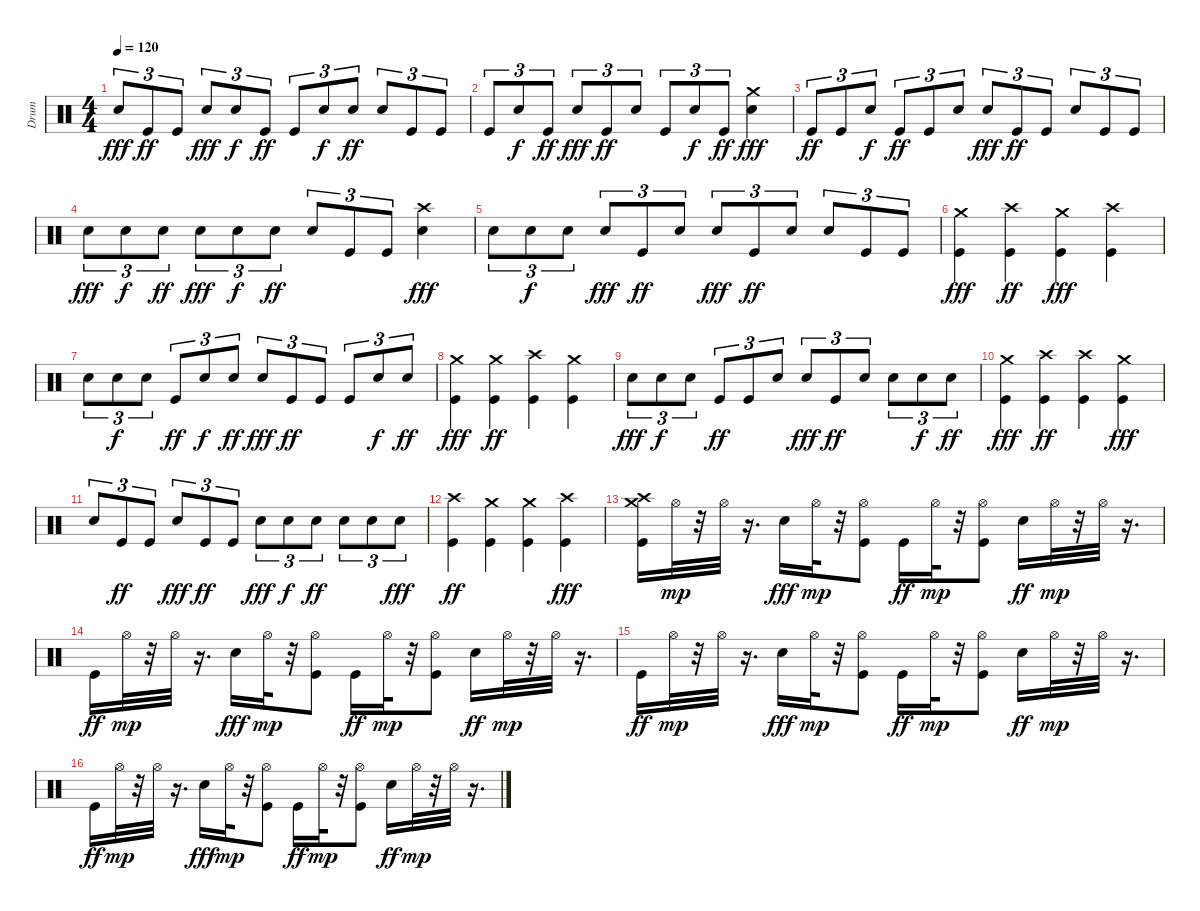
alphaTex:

\track ("Drum" "Drum") {instrument percussion}
\staff {score}
\articulation defaults
\ts (4 4)
\tempo 120
\clef neutral
\ks c "Snare (hit) 2".8{tu (3 2) dy fff} "Kick (hit)".8{tu (3 2) dy ff} "Kick (hit)".8{tu (3 2)} "Snare (hit) 2".8{tu (3 2) dy fff} "Snare (hit) 2".8{tu (3 2) dy f} "Kick (hit)".8{tu (3 2) dy ff} "Kick (hit)".8{tu (3 2)} "Snare (hit) 2".8{tu (3 2) dy f} "Snare (hit) 2".8{tu (3 2) dy ff} "Snare (hit) 2".8{tu (3 2)} "Kick (hit)".8{tu (3 2)} "Kick (hit)".8{tu (3 2)}
|
"Kick (hit)".8{tu (3 2)} "Snare (hit) 2".8{tu (3 2) dy f} "Kick (hit)".8{tu (3 2) dy ff} "Snare (hit) 2".8{tu (3 2) dy fff} "Kick (hit)".8{tu (3 2) dy ff} "Snare (hit) 2".8{tu (3 2)} "Kick (hit)".8{tu (3 2)} "Snare (hit) 2".8{tu (3 2) dy f} "Kick (hit)".8{tu (3 2) dy ff} ("Snare (hit) 2" "Crash medium (hit)").4{dy fff} |
"Kick (hit)".8{tu (3 2) dy ff} "Kick (hit)".8{tu (3 2)} "Snare (hit) 2".8{tu (3 2) dy f} "Kick (hit)".8{tu (3 2) dy ff} "Kick (hit)".8{tu (3 2)} "Snare (hit) 2".8{tu (3 2)} "Snare (hit) 2".8{tu (3 2) dy fff} "Kick (hit)".8{tu (3 2) dy ff} "Kick (hit)".8{tu (3 2)} "Snare (hit) 2".8{tu (3 2)} "Kick (hit)".8{tu (3 2)} "Kick (hit)".8{tu (3 2)} |
"Snare (hit) 2".8{tu (3 2) dy fff} "Snare (hit) 2".8{tu (3 2) dy f} "Snare (hit) 2".8{tu (3 2) dy ff} "Snare (hit) 2".8{tu (3 2) dy fff} "Snare (hit) 2".8{tu (3 2) dy f} "Snare (hit) 2".8{tu (3 2) dy ff} "Snare (hit) 2".8{tu (3 2)} "Kick (hit)".8{tu (3 2)} "Kick (hit)".8{tu (3 2)} ("Crash high (hit)" "Snare (hit) 2").4{dy fff} |
"Snare (hit) 2".8{tu (3 2)} "Snare (hit) 2".8{tu (3 2) dy f} "Snare (hit) 2".8{tu (3 2)} "Snare (hit) 2".8{tu (3 2) dy fff} "Kick (hit)".8{tu (3 2) dy ff} "Snare (hit) 2".8{tu (3 2)} "Snare (hit) 2".8{tu (3 2) dy fff} "Kick (hit)".8{tu (3 2) dy ff} "Snare (hit) 2".8{tu (3 2)} "Snare (hit) 2".8{tu (3 2)} "Kick (hit)".8{tu (3 2)} "Kick (hit)".8{tu (3 2)} |
("Kick (hit)" "Crash medium (hit)").4{dy fff} ("Crash high (hit)" "Kick (hit)").4{dy ff} ("Kick (hit)" "Crash medium (hit)").4{dy fff} ("Kick (hit)" "Crash high (hit)").4 |
"Snare (hit) 2".8{tu (3 2)} "Snare (hit) 2".8{tu (3 2) dy f} "Snare (hit) 2".8{tu (3 2)} "Kick (hit)".8{tu (3 2) dy ff} "Snare (hit) 2".8{tu (3 2) dy f} "Snare (hit) 2".8{tu (3 2) dy ff} "Snare (hit) 2".8{tu (3 2) dy fff} "Kick (hit)".8{tu (3 2) dy ff} "Kick (hit)".8{tu (3 2)} "Kick (hit)".8{tu (3 2)} "Snare (hit) 2".8{tu (3 2) dy f} "Snare (hit) 2".8{tu (3 2) dy ff} |
("Kick (hit)" "Crash medium (hit)").4{dy fff} ("Crash medium (hit)" "Kick (hit)").4{dy ff} ("Crash high (hit)" "Kick (hit)").4 ("Crash medium (hit)" "Kick (hit)").4 |
"Snare (hit) 2".8{tu (3 2) dy fff} "Snare (hit) 2".8{tu (3 2) dy f} "Snare (hit) 2".8{tu (3 2)} "Kick (hit)".8{tu (3 2) dy ff} "Kick (hit)".8{tu (3 2)} "Snare (hit) 2".8{tu (3 2)} "Snare (hit) 2".8{tu (3 2) dy fff} "Kick (hit)".8{tu (3 2) dy ff} "Snare (hit) 2".8{tu (3 2)} "Snare (hit) 2".8{tu (3 2)} "Snare (hit) 2".8{tu (3 2) dy f} "Snare (hit) 2".8{tu (3 2) dy ff} |
("Kick (hit)" "Crash medium (hit)").4{dy fff} ("Crash high (hit)" "Kick (hit)").4{dy ff} ("Crash high (hit)" "Kick (hit)").4 ("Kick (hit)" "Crash medium (hit)").4{dy fff} |
"Snare (hit) 2".8{tu (3 2)} "Kick (hit)".8{tu (3 2) dy ff} "Kick (hit)".8{tu (3 2)} "Snare (hit) 2".8{tu (3 2) dy fff} "Kick (hit)".8{tu (3 2) dy ff} "Kick (hit)".8{tu (3 2)} "Snare (hit) 2".8{tu (3 2) dy fff} "Snare (hit) 2".8{tu (3 2) dy f} "Snare (hit) 2".8{tu (3 2) dy ff} "Snare (hit) 2".8{tu (3 2)} "Snare (hit) 2".8{tu (3 2)} "Snare (hit) 2".8{tu (3 2) dy fff} |
("Crash high (hit)" "Kick (hit)").4{dy ff} ("Crash medium (hit)" "Kick (hit)").4 ("Crash medium (hit)" "Kick (hit)").4 ("Kick (hit)" "Crash high (hit)").4{dy fff} |
("Crash high (hit)" "Kick (hit)" "Crash medium (hit)").16 "Hi-Hat (open)".32{dy mp} r.32 "Hi-Hat (open)".32 r.16{d} "Snare (hit) 2".16{dy fff} "Hi-Hat (open)".32{dy mp} r.32 ("Kick (hit)" "Hi-Hat (open)").8 "Kick (hit)".16{dy ff} "Hi-Hat (open)".32{dy mp} r.32 ("Kick (hit)" "Hi-Hat (open)").8 "Snare (hit) 2".16{dy ff} "Hi-Hat (open)".32{dy mp} r.32 "Hi-Hat (open)".32 r.16{d} |
"Kick (hit)".16{dy ff} "Hi-Hat (open)".32{dy mp} r.32 "Hi-Hat (open)".32 r.16{d} "Snare (hit) 2".16{dy fff} "Hi-Hat (open)".32{dy mp} r.32 ("Kick (hit)" "Hi-Hat (open)").8 "Kick (hit)".16{dy ff} "Hi-Hat (open)".32{dy mp} r.32 ("Kick (hit)" "Hi-Hat (open)").8 "Snare (hit) 2".16{dy ff} "Hi-Hat (open)".32{dy mp} r.32 "Hi-Hat (open)".32 r.16{d} |
"Kick (hit)".16{dy ff} "Hi-Hat (open)".32{dy mp} r.32 "Hi-Hat (open)".32 r.16{d} "Snare (hit) 2".16{dy fff} "Hi-Hat (open)".32{dy mp} r.32 ("Kick (hit)" "Hi-Hat (open)").8 "Kick (hit)".16{dy ff} "Hi-Hat (open)".32{dy mp} r.32 ("Kick (hit)" "Hi-Hat (open)").8 "Snare (hit) 2".16{dy ff} "Hi-Hat (open)".32{dy mp} r.32 "Hi-Hat (open)".32 r.16{d} |
"Kick (hit)".16{dy ff} "Hi-Hat (open)".32{dy mp} r.32 "Hi-Hat (open)".32 r.16{d} "Snare (hit) 2".16{dy fff} "Hi-Hat (open)".32{dy mp} r.32 ("Kick (hit)" "Hi-Hat (open)").8 "Kick (hit)".16{dy ff} "Hi-Hat (open)".32{dy mp} r.32 ("Kick (hit)" "Hi-Hat (open)").8 "Snare (hit) 2".16{dy ff} "Hi-Hat (open)".32{dy mp} r.32 "Hi-Hat (open)".32 r.16{d}
